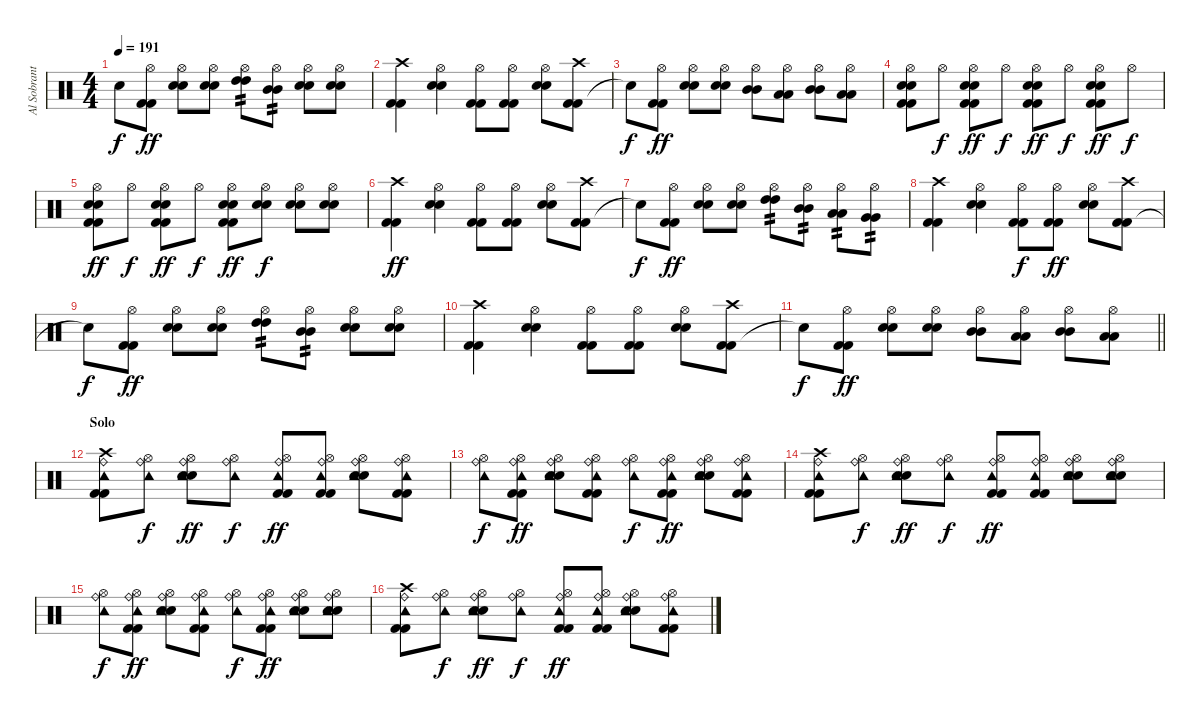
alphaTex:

\track ("Al Sobrante (Drums)" "Al Sobrant") {instrument percussion}
\staff {score}
\articulation defaults
\ts (4 4)
\tempo 191
\clef neutral
\ks c "Snare (hit)"{t}.8{dy f}
("Kick (hit) 2" "Kick (hit) 2" "Hi-Hat (open)").8{dy ff} ("Electric Snare (hit)" "Electric Snare (hit)" "Hi-Hat (open)").8 ("Electric Snare (hit)" "Electric Snare (hit)" "Hi-Hat (open)").8 ("High Tom (hit)" "High Tom (hit)" "Hi-Hat (open)").8{tp 2} ("Mid Tom (hit)" "Mid Tom (hit)" "Hi-Hat (open)").8{tp 2} ("Electric Snare (hit)" "Electric Snare (hit)" "Hi-Hat (open)").8 ("Electric Snare (hit)" "Electric Snare (hit)" "Hi-Hat (open)").8 |
("Kick (hit) 2" "Kick (hit) 2" "Crash high (hit)").4 ("Electric Snare (hit)" "Electric Snare (hit)" "Hi-Hat (open)").4 ("Kick (hit) 2" "Kick (hit) 2" "Hi-Hat (open)").8 ("Kick (hit) 2" "Kick (hit) 2" "Hi-Hat (open)").8 ("Electric Snare (hit)" "Electric Snare (hit)" "Hi-Hat (open)").8 ("Kick (hit) 2" "Kick (hit) 2" "Crash high (hit)").8 |
"Snare (hit)"{t}.8{dy f} ("Kick (hit) 2" "Kick (hit) 2" "Hi-Hat (open)").8{dy ff} ("Electric Snare (hit)" "Electric Snare (hit)" "Hi-Hat (open)").8 ("Electric Snare (hit)" "Electric Snare (hit)" "Hi-Hat (open)").8 ("Mid Tom (hit)" "Mid Tom (hit)" "Hi-Hat (open)").8 ("Low Tom (hit)" "Low Tom (hit)" "Hi-Hat (open)").8 ("Mid Tom (hit)" "Mid Tom (hit)" "Hi-Hat (open)").8 ("Low Tom (hit)" "Low Tom (hit)" "Hi-Hat (open)").8 |
("Kick (hit) 2" "Kick (hit) 2" "Electric Snare (hit)" "Electric Snare (hit)" "Hi-Hat (open)").8 "Hi-Hat (open)".8{dy f} ("Kick (hit) 2" "Kick (hit) 2" "Electric Snare (hit)" "Electric Snare (hit)" "Hi-Hat (open)").8{dy ff} "Hi-Hat (open)".8{dy f} ("Kick (hit) 2" "Kick (hit) 2" "Electric Snare (hit)" "Electric Snare (hit)" "Hi-Hat (open)").8{dy ff} "Hi-Hat (open)".8{dy f} ("Kick (hit) 2" "Kick (hit) 2" "Electric Snare (hit)" "Electric Snare (hit)" "Hi-Hat (open)").8{dy ff} "Hi-Hat (open)".8{dy f} |
("Kick (hit) 2" "Kick (hit) 2" "Electric Snare (hit)" "Electric Snare (hit)" "Hi-Hat (open)").8{dy ff} "Hi-Hat (open)".8{dy f} ("Kick (hit) 2" "Kick (hit) 2" "Electric Snare (hit)" "Electric Snare (hit)" "Hi-Hat (open)").8{dy ff} "Hi-Hat (open)".8{dy f} ("Kick (hit) 2" "Kick (hit) 2" "Electric Snare (hit)" "Electric Snare (hit)" "Hi-Hat (open)").8{dy ff} ("Electric Snare (hit)" "Electric Snare (hit)" "Hi-Hat (open)").8{dy f} ("Electric Snare (hit)" "Electric Snare (hit)" "Hi-Hat (open)").8 ("Electric Snare (hit)" "Electric Snare (hit)" "Hi-Hat (open)").8 |
("Kick (hit) 2" "Kick (hit) 2" "Crash high (hit)").4{dy ff} ("Electric Snare (hit)" "Electric Snare (hit)" "Hi-Hat (open)").4 ("Kick (hit) 2" "Kick (hit) 2" "Hi-Hat (open)").8 ("Kick (hit) 2" "Kick (hit) 2" "Hi-Hat (open)").8 ("Electric Snare (hit)" "Electric Snare (hit)" "Hi-Hat (open)").8 ("Kick (hit) 2" "Kick (hit) 2" "Crash high (hit)").8 |
"Snare (hit)"{t}.8{dy f} ("Kick (hit) 2" "Kick (hit) 2" "Hi-Hat (open)").8{dy ff} ("Electric Snare (hit)" "Electric Snare (hit)" "Hi-Hat (open)").8 ("Electric Snare (hit)" "Electric Snare (hit)" "Hi-Hat (open)").8 ("High Tom (hit)" "High Tom (hit)" "Hi-Hat (open)").8{tp 2} ("Mid Tom (hit)" "Mid Tom (hit)" "Hi-Hat (open)").8{tp 2} ("Low Tom (hit)" "Low Tom (hit)" "Hi-Hat (open)").8{tp 2} ("Very Low Tom (hit)" "Very Low Tom (hit)" "Hi-Hat (open)").8{tp 2} |
("Kick (hit) 2" "Kick (hit) 2" "Crash high (hit)").4 ("Electric Snare (hit)" "Electric Snare (hit)" "Hi-Hat (open)").4 ("Kick (hit) 2" "Kick (hit) 2" "Hi-Hat (open)").8{dy f} ("Kick (hit) 2" "Kick (hit) 2" "Hi-Hat (open)").8{dy ff} ("Electric Snare (hit)" "Electric Snare (hit)" "Hi-Hat (open)").8 ("Kick (hit) 2" "Kick (hit) 2" "Crash high (hit)").8 |
"Snare (hit)"{t}.8{dy f} ("Kick (hit) 2" "Kick (hit) 2" "Hi-Hat (open)").8{dy ff} ("Electric Snare (hit)" "Electric Snare (hit)" "Hi-Hat (open)").8 ("Electric Snare (hit)" "Electric Snare (hit)" "Hi-Hat (open)").8 ("High Tom (hit)" "High Tom (hit)" "Hi-Hat (open)").8{tp 2} ("Mid Tom (hit)" "Mid Tom (hit)" "Hi-Hat (open)").8{tp 2} ("Electric Snare (hit)" "Electric Snare (hit)" "Hi-Hat (open)").8 ("Electric Snare (hit)" "Electric Snare (hit)" "Hi-Hat (open)").8 |
("Kick (hit) 2" "Kick (hit) 2" "Crash high (hit)").4 ("Electric Snare (hit)" "Electric Snare (hit)" "Hi-Hat (open)").4 ("Kick (hit) 2" "Kick (hit) 2" "Hi-Hat (open)").8 ("Kick (hit) 2" "Kick (hit) 2" "Hi-Hat (open)").8 ("Electric Snare (hit)" "Electric Snare (hit)" "Hi-Hat (open)").8 ("Kick (hit) 2" "Kick (hit) 2" "Crash high (hit)").8 |
\barLineRight lightlight "Snare (hit)"{t}.8{dy f}
("Kick (hit) 2" "Kick (hit) 2" "Hi-Hat (open)").8{dy ff} ("Electric Snare (hit)" "Electric Snare (hit)" "Hi-Hat (open)").8 ("Electric Snare (hit)" "Electric Snare (hit)" "Hi-Hat (open)").8 ("Mid Tom (hit)" "Mid Tom (hit)" "Hi-Hat (open)").8 ("Low Tom (hit)" "Low Tom (hit)" "Hi-Hat (open)").8 ("Mid Tom (hit)" "Mid Tom (hit)" "Hi-Hat (open)").8 ("Low Tom (hit)" "Low Tom (hit)" "Hi-Hat (open)").8 |
\section ("" "Solo")
("Kick (hit) 2" "Kick (hit) 2" "Ride (bell)" "Tambourine (hit)" "Crash high (hit)").8 ("Ride (bell)" "Tambourine (hit)" "Hi-Hat (open)").8{dy f} ("Electric Snare (hit)" "Electric Snare (hit)" "Ride (bell)" "Tambourine (hit)" "Hi-Hat (open)").8{dy ff} ("Ride (bell)" "Tambourine (hit)" "Hi-Hat (open)").8{dy f} ("Kick (hit) 2" "Kick (hit) 2" "Ride (bell)" "Tambourine (hit)" "Hi-Hat (open)").8{dy ff} ("Kick (hit) 2" "Kick (hit) 2" "Ride (bell)" "Tambourine (hit)" "Hi-Hat (open)").8 ("Electric Snare (hit)" "Electric Snare (hit)" "Ride (bell)" "Tambourine (hit)" "Hi-Hat (open)").8 ("Kick (hit) 2" "Kick (hit) 2" "Ride (bell)" "Tambourine (hit)" "Hi-Hat (open)").8 |
("Ride (bell)" "Tambourine (hit)" "Hi-Hat (open)").8{dy f} ("Kick (hit) 2" "Kick (hit) 2" "Ride (bell)" "Tambourine (hit)" "Hi-Hat (open)").8{dy ff} ("Electric Snare (hit)" "Electric Snare (hit)" "Ride (bell)" "Tambourine (hit)" "Hi-Hat (open)").8 ("Kick (hit) 2" "Kick (hit) 2" "Ride (bell)" "Tambourine (hit)" "Hi-Hat (open)").8 ("Ride (bell)" "Tambourine (hit)" "Hi-Hat (open)").8{dy f} ("Kick (hit) 2" "Kick (hit) 2" "Ride (bell)" "Tambourine (hit)" "Hi-Hat (open)").8{dy ff} ("Electric Snare (hit)" "Electric Snare (hit)" "Ride (bell)" "Tambourine (hit)" "Hi-Hat (open)").8 ("Kick (hit) 2" "Kick (hit) 2" "Ride (bell)" "Tambourine (hit)" "Hi-Hat (open)").8 |
("Kick (hit) 2" "Kick (hit) 2" "Ride (bell)" "Tambourine (hit)" "Crash high (hit)").8 ("Ride (bell)" "Tambourine (hit)" "Hi-Hat (open)").8{dy f} ("Electric Snare (hit)" "Electric Snare (hit)" "Ride (bell)" "Tambourine (hit)" "Hi-Hat (open)").8{dy ff} ("Ride (bell)" "Tambourine (hit)" "Hi-Hat (open)").8{dy f} ("Kick (hit) 2" "Kick (hit) 2" "Ride (bell)" "Tambourine (hit)" "Hi-Hat (open)").8{dy ff} ("Kick (hit) 2" "Kick (hit) 2" "Ride (bell)" "Tambourine (hit)" "Hi-Hat (open)").8 ("Electric Snare (hit)" "Electric Snare (hit)" "Ride (bell)" "Tambourine (hit)" "Hi-Hat (open)").8 ("Electric Snare (hit)" "Electric Snare (hit)" "Ride (bell)" "Tambourine (hit)" "Hi-Hat (open)").8 |
("Ride (bell)" "Tambourine (hit)" "Hi-Hat (open)").8{dy f} ("Kick (hit) 2" "Kick (hit) 2" "Ride (bell)" "Tambourine (hit)" "Hi-Hat (open)").8{dy ff} ("Electric Snare (hit)" "Electric Snare (hit)" "Ride (bell)" "Tambourine (hit)" "Hi-Hat (open)").8 ("Kick (hit) 2" "Kick (hit) 2" "Ride (bell)" "Tambourine (hit)" "Hi-Hat (open)").8 ("Ride (bell)" "Tambourine (hit)" "Hi-Hat (open)").8{dy f} ("Kick (hit) 2" "Kick (hit) 2" "Ride (bell)" "Tambourine (hit)" "Hi-Hat (open)").8{dy ff} ("Electric Snare (hit)" "Electric Snare (hit)" "Ride (bell)" "Tambourine (hit)" "Hi-Hat (open)").8 ("Electric Snare (hit)" "Electric Snare (hit)" "Ride (bell)" "Tambourine (hit)" "Hi-Hat (open)").8 |
("Kick (hit) 2" "Kick (hit) 2" "Ride (bell)" "Tambourine (hit)" "Crash high (hit)").8 ("Ride (bell)" "Tambourine (hit)" "Hi-Hat (open)").8{dy f} ("Electric Snare (hit)" "Electric Snare (hit)" "Ride (bell)" "Tambourine (hit)" "Hi-Hat (open)").8{dy ff} ("Ride (bell)" "Tambourine (hit)" "Hi-Hat (open)").8{dy f} ("Kick (hit) 2" "Kick (hit) 2" "Ride (bell)" "Tambourine (hit)" "Hi-Hat (open)").8{dy ff} ("Kick (hit) 2" "Kick (hit) 2" "Ride (bell)" "Tambourine (hit)" "Hi-Hat (open)").8 ("Electric Snare (hit)" "Electric Snare (hit)" "Ride (bell)" "Tambourine (hit)" "Hi-Hat (open)").8 ("Kick (hit) 2" "Kick (hit) 2" "Ride (bell)" "Tambourine (hit)" "Hi-Hat (open)").8
